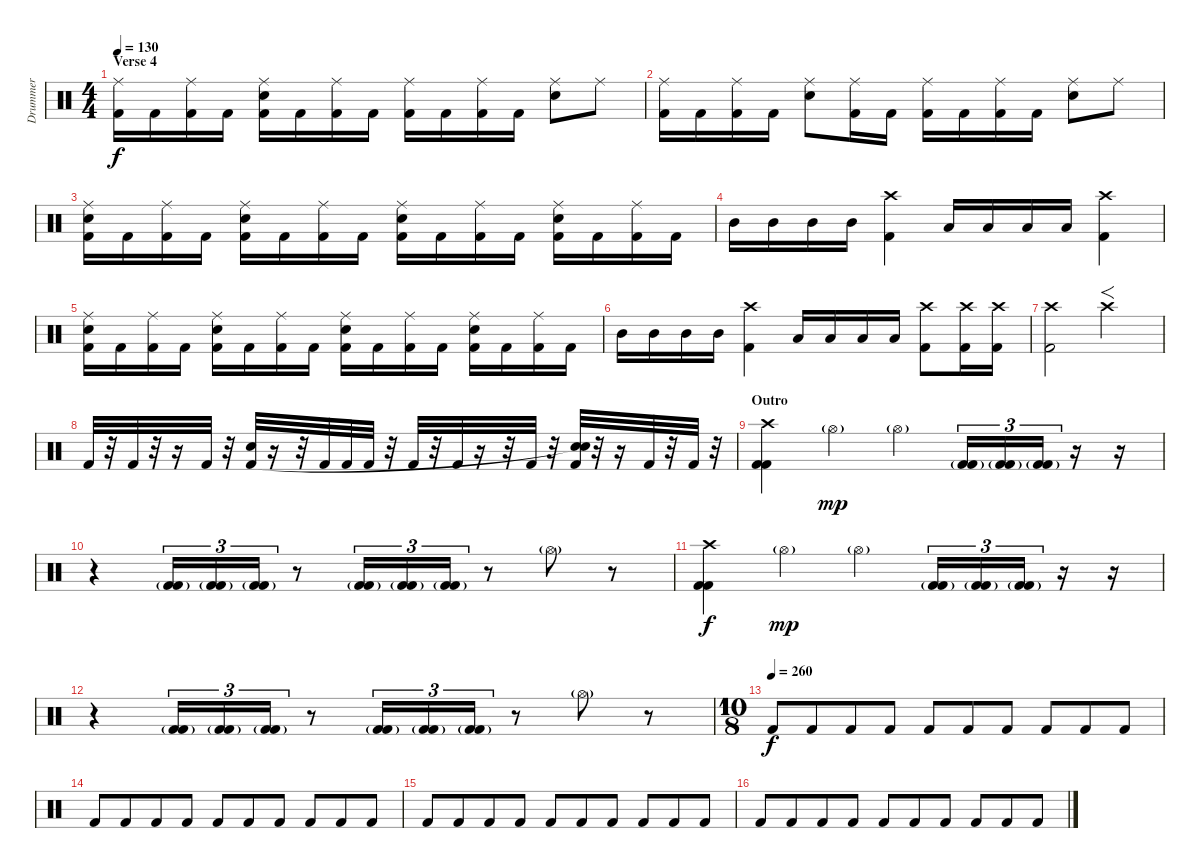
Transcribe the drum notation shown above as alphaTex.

\track ("Drummer" "Drummer") {instrument percussion}
\staff {score}
\articulation defaults
\ts (4 4)
\section ("" "Verse 4")
\tempo 130
\clef neutral
\ks c
("Ride (middle)" "Kick (hit) 2").16{dy f} "Kick (hit) 2".16 ("Ride (middle)" "Kick (hit) 2").16 "Kick (hit) 2".16 ("Ride (middle)" "Snare (hit) 2" "Kick (hit) 2").16 "Kick (hit) 2".16 ("Ride (middle)" "Kick (hit) 2").16 "Kick (hit) 2".16 ("Ride (middle)" "Kick (hit) 2").16 "Kick (hit) 2".16 ("Ride (middle)" "Kick (hit) 2").16 "Kick (hit) 2".16 ("Ride (middle)" "Snare (hit) 2").8 "Ride (middle)".8 |
("Ride (middle)" "Kick (hit) 2").16 "Kick (hit) 2".16 ("Ride (middle)" "Kick (hit) 2").16 "Kick (hit) 2".16 ("Ride (middle)" "Snare (hit) 2").8 ("Ride (middle)" "Kick (hit) 2").16 "Kick (hit) 2".16 ("Ride (middle)" "Kick (hit) 2").16 "Kick (hit) 2".16 ("Ride (middle)" "Kick (hit) 2").16 "Kick (hit) 2".16 ("Ride (middle)" "Snare (hit) 2").8 "Ride (middle)".8 |
("Ride (middle)" "Snare (hit) 2" "Kick (hit) 2").16 "Kick (hit) 2".16 ("Ride (middle)" "Kick (hit) 2").16 "Kick (hit) 2".16 ("Ride (middle)" "Snare (hit) 2" "Kick (hit) 2").16 "Kick (hit) 2".16 ("Ride (middle)" "Kick (hit) 2").16 "Kick (hit) 2".16 ("Ride (middle)" "Snare (hit) 2" "Kick (hit) 2").16 "Kick (hit) 2".16 ("Ride (middle)" "Kick (hit) 2").16 "Kick (hit) 2".16 ("Ride (middle)" "Snare (hit) 2" "Kick (hit) 2").16 "Kick (hit) 2".16 ("Ride (middle)" "Kick (hit) 2").16 "Kick (hit) 2".16 |
"Mid Tom (hit)".16 "Mid Tom (hit)".16 "Mid Tom (hit)".16 "Mid Tom (hit)".16 ("Crash high (hit)" "Kick (hit) 2").4 "Low Tom (hit)".16 "Low Tom (hit)".16 "Low Tom (hit)".16 "Low Tom (hit)".16 ("Crash high (hit)" "Kick (hit) 2").4 |
("Ride (middle)" "Snare (hit) 2" "Kick (hit) 2").16 "Kick (hit) 2".16 ("Ride (middle)" "Kick (hit) 2").16 "Kick (hit) 2".16 ("Ride (middle)" "Snare (hit) 2" "Kick (hit) 2").16 "Kick (hit) 2".16 ("Ride (middle)" "Kick (hit) 2").16 "Kick (hit) 2".16 ("Ride (middle)" "Snare (hit) 2" "Kick (hit) 2").16 "Kick (hit) 2".16 ("Ride (middle)" "Kick (hit) 2").16 "Kick (hit) 2".16 ("Ride (middle)" "Snare (hit) 2" "Kick (hit) 2").16 "Kick (hit) 2".16 ("Ride (middle)" "Kick (hit) 2").16 "Kick (hit) 2".16 |
"Mid Tom (hit)".16 "Mid Tom (hit)".16 "Mid Tom (hit)".16 "Mid Tom (hit)".16 ("Crash high (hit)" "Kick (hit) 2").4 "Low Tom (hit)".16 "Low Tom (hit)".16 "Low Tom (hit)".16 "Low Tom (hit)".16 ("Crash high (hit)" "Kick (hit) 2").8 ("Crash high (hit)" "Kick (hit) 2").16 ("Crash high (hit)" "Kick (hit) 2").16 |
("Crash high (hit)" "Kick (hit) 2").2 "Crash high (hit)".2{f} |
"Kick (hit) 2".32 r.32 "Kick (hit) 2".32 r.32 r.16 "Kick (hit) 2".32 r.32 ("Snare (hit) 2" "Kick (hit) 2").32 r.16 r.32 "Kick (hit) 2".32 "Kick (hit) 2".32 "Kick (hit) 2".32 r.32 "Kick (hit) 2".32 r.32 "Kick (hit) 2".32 r.16 r.32 "Kick (hit) 2".32 r.32 ("Snare (hit) 2" "Snare (hit)"{t} "Kick (hit) 2").32 r.32 r.16 "Kick (hit) 2".32 r.32 "Kick (hit) 2".32 r.32 |
\section ("" "Outro")
("Crash high (hit)" "Kick (hit) 2" "Kick (hit) 2").4 "Hi-Hat (open)"{g}.4{dy mp} "Hi-Hat (open)"{g}.4 ("Kick (hit) 2"{g} "Kick (hit) 2").16{tu (3 2)} ("Kick (hit) 2"{g} "Kick (hit) 2").16{tu (3 2)} ("Kick (hit) 2"{g} "Kick (hit) 2").16{tu (3 2)} r.16 r.16 |
r.4 ("Kick (hit) 2"{g} "Kick (hit) 2").16{tu (3 2)} ("Kick (hit) 2"{g} "Kick (hit) 2").16{tu (3 2)} ("Kick (hit) 2"{g} "Kick (hit) 2").16{tu (3 2)} r.8 ("Kick (hit) 2"{g} "Kick (hit) 2").16{tu (3 2)} ("Kick (hit) 2"{g} "Kick (hit) 2").16{tu (3 2)} ("Kick (hit) 2"{g} "Kick (hit) 2").16{tu (3 2)} r.8 "Hi-Hat (open)"{g}.8 r.8 |
("Crash high (hit)" "Kick (hit) 2" "Kick (hit) 2").4{dy f} "Hi-Hat (open)"{g}.4{dy mp} "Hi-Hat (open)"{g}.4 ("Kick (hit) 2"{g} "Kick (hit) 2").16{tu (3 2)} ("Kick (hit) 2"{g} "Kick (hit) 2").16{tu (3 2)} ("Kick (hit) 2"{g} "Kick (hit) 2").16{tu (3 2)} r.16 r.16 |
r.4 ("Kick (hit) 2"{g} "Kick (hit) 2").16{tu (3 2)} ("Kick (hit) 2"{g} "Kick (hit) 2").16{tu (3 2)} ("Kick (hit) 2"{g} "Kick (hit) 2").16{tu (3 2)} r.8 ("Kick (hit) 2"{g} "Kick (hit) 2").16{tu (3 2)} ("Kick (hit) 2"{g} "Kick (hit) 2").16{tu (3 2)} ("Kick (hit) 2"{g} "Kick (hit) 2").16{tu (3 2)} r.8 "Hi-Hat (open)"{g}.8 r.8 |
\ts (10 8)
\tempo (260)
"Kick (hit) 2".8{dy f} "Kick (hit) 2".8 "Kick (hit) 2".8 "Kick (hit) 2".8 "Kick (hit) 2".8 "Kick (hit) 2".8 "Kick (hit) 2".8 "Kick (hit) 2".8 "Kick (hit) 2".8 "Kick (hit) 2".8 |
"Kick (hit) 2".8 "Kick (hit) 2".8 "Kick (hit) 2".8 "Kick (hit) 2".8 "Kick (hit) 2".8 "Kick (hit) 2".8 "Kick (hit) 2".8 "Kick (hit) 2".8 "Kick (hit) 2".8 "Kick (hit) 2".8 |
"Kick (hit) 2".8 "Kick (hit) 2".8 "Kick (hit) 2".8 "Kick (hit) 2".8 "Kick (hit) 2".8 "Kick (hit) 2".8 "Kick (hit) 2".8 "Kick (hit) 2".8 "Kick (hit) 2".8 "Kick (hit) 2".8 |
"Kick (hit) 2".8 "Kick (hit) 2".8 "Kick (hit) 2".8 "Kick (hit) 2".8 "Kick (hit) 2".8 "Kick (hit) 2".8 "Kick (hit) 2".8 "Kick (hit) 2".8 "Kick (hit) 2".8 "Kick (hit) 2".8
